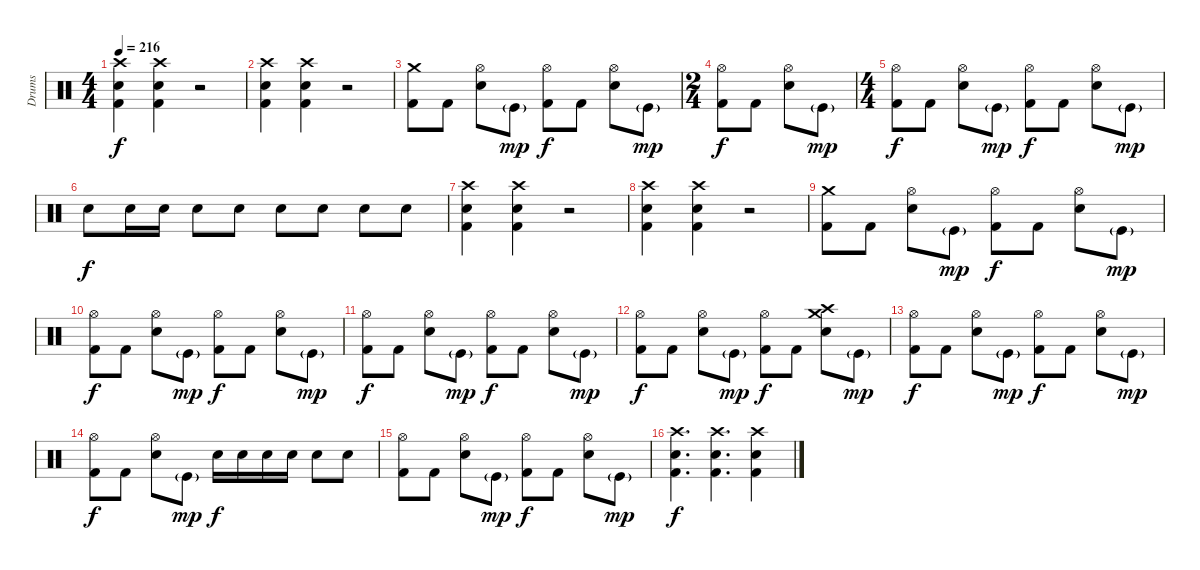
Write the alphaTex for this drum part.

\track ("Drums" "Drums") {instrument percussion}
\staff {score}
\articulation defaults
\ts (4 4)
\tempo 216
\clef neutral
\ks c
("Crash high (hit)" "Snare (hit) 2" "Kick (hit) 2").4{dy f} ("Crash high (hit)" "Snare (hit) 2" "Kick (hit) 2").4 r.2 |
("Crash high (hit)" "Snare (hit) 2" "Kick (hit) 2").4 ("Crash high (hit)" "Snare (hit) 2" "Kick (hit) 2").4 r.2 |
("Crash medium (hit)" "Kick (hit) 2").8 "Kick (hit) 2".8 ("Hi-Hat (open)" "Snare (hit) 2").8 "Kick (hit)"{g}.8{dy mp} ("Hi-Hat (open)" "Kick (hit) 2").8{dy f} "Kick (hit) 2".8 ("Hi-Hat (open)" "Snare (hit) 2").8 "Kick (hit)"{g}.8{dy mp} |
\ts (2 4)
("Hi-Hat (open)" "Kick (hit) 2").8{dy f} "Kick (hit) 2".8 ("Hi-Hat (open)" "Snare (hit) 2").8 "Kick (hit)"{g}.8{dy mp} |
\ts (4 4)
("Hi-Hat (open)" "Kick (hit) 2").8{dy f} "Kick (hit) 2".8 ("Hi-Hat (open)" "Snare (hit) 2").8 "Kick (hit)"{g}.8{dy mp} ("Hi-Hat (open)" "Kick (hit) 2").8{dy f} "Kick (hit) 2".8 ("Hi-Hat (open)" "Snare (hit) 2").8 "Kick (hit)"{g}.8{dy mp} |
"Snare (hit) 2".8{dy f} "Snare (hit) 2".16 "Snare (hit) 2".16 "Snare (hit) 2".8 "Snare (hit) 2".8 "Snare (hit) 2".8 "Snare (hit) 2".8 "Snare (hit) 2".8 "Snare (hit) 2".8 |
("Crash high (hit)" "Snare (hit) 2" "Kick (hit) 2").4 ("Crash high (hit)" "Snare (hit) 2" "Kick (hit) 2").4 r.2 |
("Crash high (hit)" "Snare (hit) 2" "Kick (hit) 2").4 ("Crash high (hit)" "Snare (hit) 2" "Kick (hit) 2").4 r.2 |
("Crash medium (hit)" "Kick (hit) 2").8 "Kick (hit) 2".8 ("Hi-Hat (open)" "Snare (hit) 2").8 "Kick (hit)"{g}.8{dy mp} ("Hi-Hat (open)" "Kick (hit) 2").8{dy f} "Kick (hit) 2".8 ("Hi-Hat (open)" "Snare (hit) 2").8 "Kick (hit)"{g}.8{dy mp} |
("Hi-Hat (open)" "Kick (hit) 2").8{dy f} "Kick (hit) 2".8 ("Hi-Hat (open)" "Snare (hit) 2").8 "Kick (hit)"{g}.8{dy mp} ("Hi-Hat (open)" "Kick (hit) 2").8{dy f} "Kick (hit) 2".8 ("Hi-Hat (open)" "Snare (hit) 2").8 "Kick (hit)"{g}.8{dy mp} |
("Hi-Hat (open)" "Kick (hit) 2").8{dy f} "Kick (hit) 2".8 ("Hi-Hat (open)" "Snare (hit) 2").8 "Kick (hit)"{g}.8{dy mp} ("Hi-Hat (open)" "Kick (hit) 2").8{dy f} "Kick (hit) 2".8 ("Hi-Hat (open)" "Snare (hit) 2").8 "Kick (hit)"{g}.8{dy mp} |
("Hi-Hat (open)" "Kick (hit) 2").8{dy f} "Kick (hit) 2".8 ("Hi-Hat (open)" "Snare (hit) 2").8 "Kick (hit)"{g}.8{dy mp} ("Hi-Hat (open)" "Kick (hit) 2").8{dy f} "Kick (hit) 2".8 ("Crash medium (hit)" "Crash high (hit)" "Snare (hit) 2").8 "Kick (hit)"{g}.8{dy mp} |
("Hi-Hat (open)" "Kick (hit) 2").8{dy f} "Kick (hit) 2".8 ("Hi-Hat (open)" "Snare (hit) 2").8 "Kick (hit)"{g}.8{dy mp} ("Hi-Hat (open)" "Kick (hit) 2").8{dy f} "Kick (hit) 2".8 ("Hi-Hat (open)" "Snare (hit) 2").8 "Kick (hit)"{g}.8{dy mp} |
("Hi-Hat (open)" "Kick (hit) 2").8{dy f} "Kick (hit) 2".8 ("Hi-Hat (open)" "Snare (hit) 2").8 "Kick (hit)"{g}.8{dy mp} "Electric Snare (hit)".16{dy f} "Electric Snare (hit)".16 "Electric Snare (hit)".16 "Electric Snare (hit)".16 "Electric Snare (hit)".8 "Electric Snare (hit)".8 |
("Hi-Hat (open)" "Kick (hit) 2").8 "Kick (hit) 2".8 ("Hi-Hat (open)" "Snare (hit) 2").8 "Kick (hit)"{g}.8{dy mp} ("Hi-Hat (open)" "Kick (hit) 2").8{dy f} "Kick (hit) 2".8 ("Hi-Hat (open)" "Snare (hit) 2").8 "Kick (hit)"{g}.8{dy mp} |
("Crash high (hit)" "Snare (hit) 2" "Kick (hit) 2").4{d dy f} ("Crash high (hit)" "Snare (hit) 2" "Kick (hit) 2").4{d} ("Crash high (hit)" "Snare (hit) 2" "Kick (hit) 2").4
